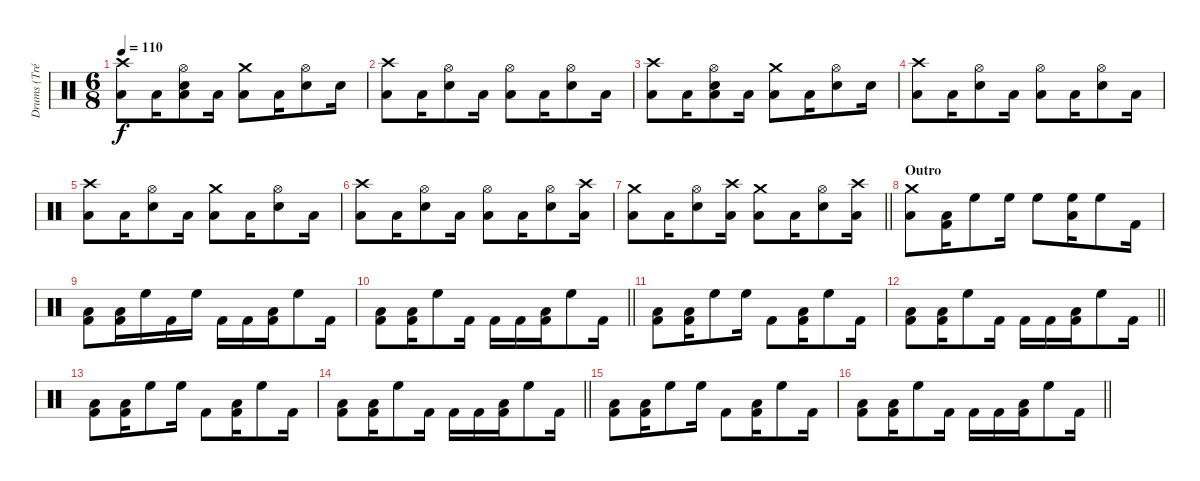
\track ("Drums (Tré Cool)" "Drums (Tré") {instrument percussion}
\staff {score}
\articulation defaults
\ts (6 8)
\tempo 110
\clef neutral
\ks c
("Crash high (hit)" "Low Floor Tom (hit)").8{dy f} "Low Floor Tom (hit)".16 ("Hi-Hat (open)" "Electric Snare (hit)" "Low Floor Tom (hit)").8 "Low Floor Tom (hit)".16 ("Crash medium (hit)" "Low Floor Tom (hit)").8 "Low Floor Tom (hit)".16 ("Hi-Hat (open)" "Electric Snare (hit)").8 "Electric Snare (hit)".16 |
("Crash high (hit)" "Low Floor Tom (hit)").8 "Low Floor Tom (hit)".16 ("Hi-Hat (open)" "Electric Snare (hit)").8 "Low Floor Tom (hit)".16 ("Hi-Hat (open)" "Low Floor Tom (hit)").8 "Low Floor Tom (hit)".16 ("Hi-Hat (open)" "Electric Snare (hit)").8 "Low Floor Tom (hit)".16 |
("Crash high (hit)" "Low Floor Tom (hit)").8 "Low Floor Tom (hit)".16 ("Hi-Hat (open)" "Electric Snare (hit)" "Low Floor Tom (hit)").8 "Low Floor Tom (hit)".16 ("Crash medium (hit)" "Low Floor Tom (hit)").8 "Low Floor Tom (hit)".16 ("Hi-Hat (open)" "Electric Snare (hit)").8 "Electric Snare (hit)".16 |
("Crash high (hit)" "Low Floor Tom (hit)").8 "Low Floor Tom (hit)".16 ("Hi-Hat (open)" "Electric Snare (hit)").8 "Low Floor Tom (hit)".16 ("Hi-Hat (open)" "Low Floor Tom (hit)").8 "Low Floor Tom (hit)".16 ("Hi-Hat (open)" "Electric Snare (hit)").8 "Low Floor Tom (hit)".16 |
("Crash high (hit)" "Low Floor Tom (hit)").8 "Low Floor Tom (hit)".16 ("Hi-Hat (open)" "Electric Snare (hit)").8 "Low Floor Tom (hit)".16 ("Crash medium (hit)" "Low Floor Tom (hit)").8 "Low Floor Tom (hit)".16 ("Hi-Hat (open)" "Electric Snare (hit)").8 "Low Floor Tom (hit)".16 |
("Crash high (hit)" "Low Floor Tom (hit)").8 "Low Floor Tom (hit)".16 ("Hi-Hat (open)" "Electric Snare (hit)").8 "Low Floor Tom (hit)".16 ("Hi-Hat (open)" "Low Floor Tom (hit)").8 "Low Floor Tom (hit)".16 ("Hi-Hat (open)" "Electric Snare (hit)").8 ("Crash high (hit)" "Low Floor Tom (hit)").16 |
\barLineRight lightlight
("Crash medium (hit)" "Low Floor Tom (hit)").8 "Low Floor Tom (hit)".16 ("Hi-Hat (open)" "Electric Snare (hit)").8 ("Crash high (hit)" "Low Floor Tom (hit)").16 ("Crash medium (hit)" "Low Floor Tom (hit)").8 "Low Floor Tom (hit)".16 ("Hi-Hat (open)" "Electric Snare (hit)").8 ("Crash high (hit)" "Low Floor Tom (hit)").16 |
\section ("" "Outro")
("Crash medium (hit)" "Low Floor Tom (hit)").8 ("Kick (hit) 2" "Low Floor Tom (hit)").16 "High Floor Tom (hit)".8 "High Floor Tom (hit)".16 "High Floor Tom (hit)".8 ("High Floor Tom (hit)" "Low Floor Tom (hit)").16 "High Floor Tom (hit)".8 "Kick (hit) 2".16 |
("Kick (hit) 2" "Low Floor Tom (hit)").8 ("Kick (hit) 2" "Low Floor Tom (hit)").16 "High Floor Tom (hit)".16 "Kick (hit) 2".16 "High Floor Tom (hit)".16 "Kick (hit) 2".16 "Kick (hit) 2".16 ("Kick (hit) 2" "Low Floor Tom (hit)").16 "High Floor Tom (hit)".8 "Kick (hit) 2".16 |
\barLineRight lightlight
("Kick (hit) 2" "Low Floor Tom (hit)").8 ("Kick (hit) 2" "Low Floor Tom (hit)").16 "High Floor Tom (hit)".8 "Kick (hit) 2".16 "Kick (hit) 2".16 "Kick (hit) 2".16 ("Kick (hit) 2" "Low Floor Tom (hit)").16 "High Floor Tom (hit)".8 "Kick (hit) 2".16 |
("Kick (hit) 2" "Low Floor Tom (hit)").8 ("Kick (hit) 2" "Low Floor Tom (hit)").16 "High Floor Tom (hit)".8 "High Floor Tom (hit)".16 "Kick (hit) 2".8 ("Kick (hit) 2" "Low Floor Tom (hit)").16 "High Floor Tom (hit)".8 "Kick (hit) 2".16 |
\barLineRight lightlight
("Kick (hit) 2" "Low Floor Tom (hit)").8 ("Kick (hit) 2" "Low Floor Tom (hit)").16 "High Floor Tom (hit)".8 "Kick (hit) 2".16 "Kick (hit) 2".16 "Kick (hit) 2".16 ("Kick (hit) 2" "Low Floor Tom (hit)").16 "High Floor Tom (hit)".8 "Kick (hit) 2".16 |
("Kick (hit) 2" "Low Floor Tom (hit)").8 ("Kick (hit) 2" "Low Floor Tom (hit)").16 "High Floor Tom (hit)".8 "High Floor Tom (hit)".16 "Kick (hit) 2".8 ("Kick (hit) 2" "Low Floor Tom (hit)").16 "High Floor Tom (hit)".8 "Kick (hit) 2".16 |
\barLineRight lightlight
("Kick (hit) 2" "Low Floor Tom (hit)").8 ("Kick (hit) 2" "Low Floor Tom (hit)").16 "High Floor Tom (hit)".8 "Kick (hit) 2".16 "Kick (hit) 2".16 "Kick (hit) 2".16 ("Kick (hit) 2" "Low Floor Tom (hit)").16 "High Floor Tom (hit)".8 "Kick (hit) 2".16 |
("Kick (hit) 2" "Low Floor Tom (hit)").8 ("Kick (hit) 2" "Low Floor Tom (hit)").16 "High Floor Tom (hit)".8 "High Floor Tom (hit)".16 "Kick (hit) 2".8 ("Kick (hit) 2" "Low Floor Tom (hit)").16 "High Floor Tom (hit)".8 "Kick (hit) 2".16 |
\barLineRight lightlight
("Kick (hit) 2" "Low Floor Tom (hit)").8 ("Kick (hit) 2" "Low Floor Tom (hit)").16 "High Floor Tom (hit)".8 "Kick (hit) 2".16 "Kick (hit) 2".16 "Kick (hit) 2".16 ("Kick (hit) 2" "Low Floor Tom (hit)").16 "High Floor Tom (hit)".8 "Kick (hit) 2".16
